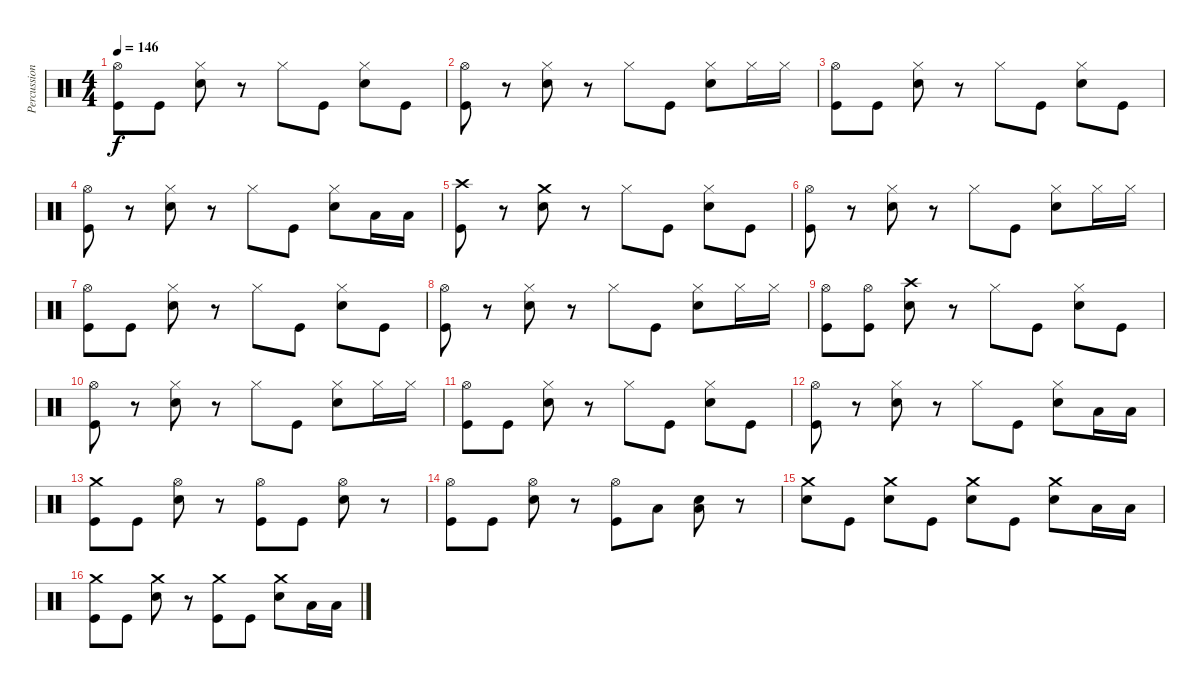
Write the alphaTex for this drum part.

\track ("Percussion" "Percussion") {instrument percussion}
\staff {score}
\articulation defaults
\ts (4 4)
\tempo 146
\clef neutral
\ks c
("Hi-Hat (open)" "Kick (hit)").8{dy f} "Kick (hit)".8 ("Hi-Hat (closed)" "Snare (hit) 2").8 r.8 "Hi-Hat (closed)".8 "Kick (hit)".8 ("Hi-Hat (closed)" "Snare (hit) 2").8 "Kick (hit)".8 |
("Hi-Hat (open)" "Kick (hit)").8 r.8 ("Hi-Hat (closed)" "Snare (hit) 2").8 r.8 "Hi-Hat (closed)".8 "Kick (hit)".8 ("Hi-Hat (closed)" "Snare (hit) 2").8 "Hi-Hat (closed)".16 "Hi-Hat (closed)".16 |
("Hi-Hat (open)" "Kick (hit)").8 "Kick (hit)".8 ("Hi-Hat (closed)" "Snare (hit) 2").8 r.8 "Hi-Hat (closed)".8 "Kick (hit)".8 ("Hi-Hat (closed)" "Snare (hit) 2").8 "Kick (hit)".8 |
("Hi-Hat (open)" "Kick (hit)").8 r.8 ("Hi-Hat (closed)" "Snare (hit) 2").8 r.8 "Hi-Hat (closed)".8 "Kick (hit)".8 ("Hi-Hat (closed)" "Snare (hit) 2").8 "Low Floor Tom (hit)".16 "Low Floor Tom (hit)".16 |
("Crash high (hit)" "Kick (hit)").8 r.8 ("Crash medium (hit)" "Snare (hit) 2").8 r.8 "Hi-Hat (closed)".8 "Kick (hit)".8 ("Hi-Hat (closed)" "Snare (hit) 2").8 "Kick (hit)".8 |
("Hi-Hat (open)" "Kick (hit)").8 r.8 ("Hi-Hat (closed)" "Snare (hit) 2").8 r.8 "Hi-Hat (closed)".8 "Kick (hit)".8 ("Hi-Hat (closed)" "Snare (hit) 2").8 "Hi-Hat (closed)".16 "Hi-Hat (closed)".16 |
("Hi-Hat (open)" "Kick (hit)").8 "Kick (hit)".8 ("Hi-Hat (closed)" "Snare (hit) 2").8 r.8 "Hi-Hat (closed)".8 "Kick (hit)".8 ("Hi-Hat (closed)" "Snare (hit) 2").8 "Kick (hit)".8 |
("Hi-Hat (open)" "Kick (hit)").8 r.8 ("Hi-Hat (closed)" "Snare (hit) 2").8 r.8 "Hi-Hat (closed)".8 "Kick (hit)".8 ("Hi-Hat (closed)" "Snare (hit) 2").8 "Hi-Hat (closed)".16 "Hi-Hat (closed)".16 |
("Hi-Hat (open)" "Kick (hit)").8 ("Hi-Hat (open)" "Kick (hit)").8 ("Crash high (hit)" "Snare (hit) 2").8 r.8 "Hi-Hat (closed)".8 "Kick (hit)".8 ("Hi-Hat (closed)" "Snare (hit) 2").8 "Kick (hit)".8 |
("Hi-Hat (open)" "Kick (hit)").8 r.8 ("Hi-Hat (closed)" "Snare (hit) 2").8 r.8 "Hi-Hat (closed)".8 "Kick (hit)".8 ("Hi-Hat (closed)" "Snare (hit) 2").8 "Hi-Hat (closed)".16 "Hi-Hat (closed)".16 |
("Hi-Hat (open)" "Kick (hit)").8 "Kick (hit)".8 ("Hi-Hat (closed)" "Snare (hit) 2").8 r.8 "Hi-Hat (closed)".8 "Kick (hit)".8 ("Hi-Hat (closed)" "Snare (hit) 2").8 "Kick (hit)".8 |
("Hi-Hat (open)" "Kick (hit)").8 r.8 ("Hi-Hat (closed)" "Snare (hit) 2").8 r.8 "Hi-Hat (closed)".8 "Kick (hit)".8 ("Hi-Hat (closed)" "Snare (hit) 2").8 "Low Floor Tom (hit)".16 "Low Floor Tom (hit)".16 |
("Crash medium (hit)" "Kick (hit)").8 "Kick (hit)".8 ("Hi-Hat (open)" "Snare (hit) 2").8 r.8 ("Hi-Hat (open)" "Kick (hit)").8 "Kick (hit)".8 ("Hi-Hat (open)" "Snare (hit) 2").8 r.8 |
("Hi-Hat (open)" "Kick (hit)").8 "Kick (hit)".8 ("Hi-Hat (open)" "Snare (hit) 2").8 r.8 ("Hi-Hat (open)" "Kick (hit)").8 "Low Tom (hit)".8 ("Low Floor Tom (hit)" "Snare (hit) 2").8 r.8 |
("Crash medium (hit)" "Snare (hit) 2").8 "Kick (hit)".8 ("Crash medium (hit)" "Snare (hit) 2").8 "Kick (hit)".8 ("Crash medium (hit)" "Snare (hit) 2").8 "Kick (hit)".8 ("Crash medium (hit)" "Snare (hit) 2").8 "Low Floor Tom (hit)".16 "Low Floor Tom (hit)".16 |
("Crash medium (hit)" "Kick (hit)").8 "Kick (hit)".8 ("Crash medium (hit)" "Snare (hit) 2").8 r.8 ("Crash medium (hit)" "Kick (hit)").8 "Kick (hit)".8 ("Crash medium (hit)" "Snare (hit) 2").8 "Low Floor Tom (hit)".16 "Low Floor Tom (hit)".16
